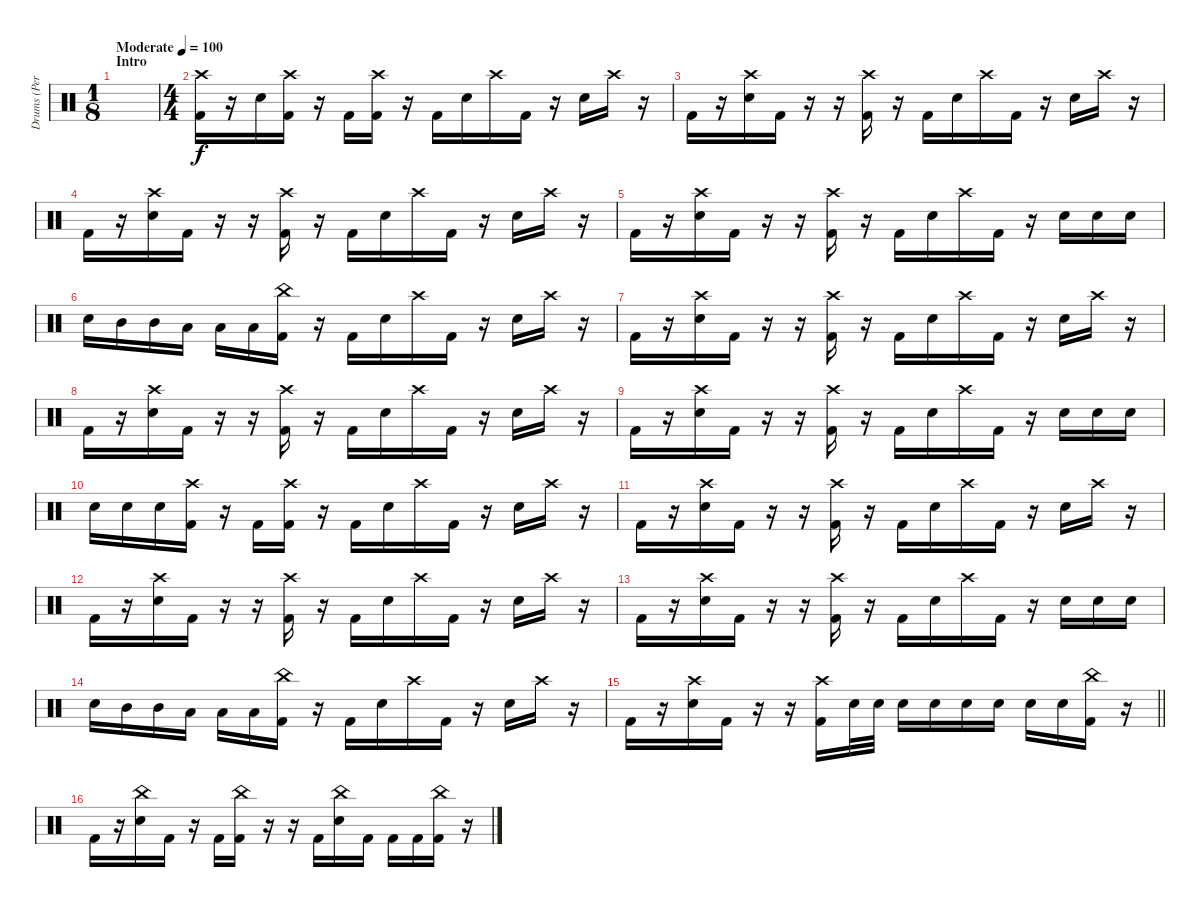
\track ("Drums (Perttu Kurttila)" "Drums (Per") {instrument percussion}
\staff {score}
\articulation defaults
\ts (1 8)
\section ("" "Intro")
\tempo (100 "Moderate")
\clef neutral
\ks c
|
\ts (4 4)
("Crash high (hit)" "Kick (hit) 2").16 r.16 "Electric Snare (hit)".16 ("Crash high (hit)" "Kick (hit) 2").16 r.16 "Kick (hit) 2".16 ("Crash high (hit)" "Kick (hit) 2").16 r.16 "Kick (hit) 2".16 "Electric Snare (hit)".16 "Crash high (hit)".16 "Kick (hit) 2".16 r.16 "Electric Snare (hit)".16 "Crash high (hit)".16 r.16 |
"Kick (hit) 2".16 r.16 ("Crash high (hit)" "Electric Snare (hit)").16 "Kick (hit) 2".16 r.16 r.16 ("Crash high (hit)" "Kick (hit) 2").16 r.16 "Kick (hit) 2".16 "Electric Snare (hit)".16 "Crash high (hit)".16 "Kick (hit) 2".16 r.16 "Electric Snare (hit)".16 "Crash high (hit)".16 r.16 |
"Kick (hit) 2".16 r.16 ("Crash high (hit)" "Electric Snare (hit)").16 "Kick (hit) 2".16 r.16 r.16 ("Crash high (hit)" "Kick (hit) 2").16 r.16 "Kick (hit) 2".16 "Electric Snare (hit)".16 "Crash high (hit)".16 "Kick (hit) 2".16 r.16 "Electric Snare (hit)".16 "Crash high (hit)".16 r.16 |
"Kick (hit) 2".16 r.16 ("Crash high (hit)" "Electric Snare (hit)").16 "Kick (hit) 2".16 r.16 r.16 ("Crash high (hit)" "Kick (hit) 2").16 r.16 "Kick (hit) 2".16 "Electric Snare (hit)".16 "Crash high (hit)".16 "Kick (hit) 2".16 r.16 "Electric Snare (hit)".16 "Electric Snare (hit)".16 "Electric Snare (hit)".16 |
"Electric Snare (hit)".16 "Mid Tom (hit)".16 "Mid Tom (hit)".16 "Low Tom (hit)".16 "Low Tom (hit)".16 "Low Tom (hit)".16 ("China (hit)" "Kick (hit) 2").16 r.16 "Kick (hit) 2".16 "Electric Snare (hit)".16 "Crash high (hit)".16 "Kick (hit) 2".16 r.16 "Electric Snare (hit)".16 "Crash high (hit)".16 r.16 |
"Kick (hit) 2".16 r.16 ("Crash high (hit)" "Electric Snare (hit)").16 "Kick (hit) 2".16 r.16 r.16 ("Crash high (hit)" "Kick (hit) 2").16 r.16 "Kick (hit) 2".16 "Electric Snare (hit)".16 "Crash high (hit)".16 "Kick (hit) 2".16 r.16 "Electric Snare (hit)".16 "Crash high (hit)".16 r.16 |
"Kick (hit) 2".16 r.16 ("Crash high (hit)" "Electric Snare (hit)").16 "Kick (hit) 2".16 r.16 r.16 ("Crash high (hit)" "Kick (hit) 2").16 r.16 "Kick (hit) 2".16 "Electric Snare (hit)".16 "Crash high (hit)".16 "Kick (hit) 2".16 r.16 "Electric Snare (hit)".16 "Crash high (hit)".16 r.16 |
"Kick (hit) 2".16 r.16 ("Crash high (hit)" "Electric Snare (hit)").16 "Kick (hit) 2".16 r.16 r.16 ("Crash high (hit)" "Kick (hit) 2").16 r.16 "Kick (hit) 2".16 "Electric Snare (hit)".16 "Crash high (hit)".16 "Kick (hit) 2".16 r.16 "Electric Snare (hit)".16 "Electric Snare (hit)".16 "Electric Snare (hit)".16 |
"Electric Snare (hit)".16 "Electric Snare (hit)".16 "Electric Snare (hit)".16 ("Crash high (hit)" "Kick (hit) 2").16 r.16 "Kick (hit) 2".16 ("Crash high (hit)" "Kick (hit) 2").16 r.16 "Kick (hit) 2".16 "Electric Snare (hit)".16 "Crash high (hit)".16 "Kick (hit) 2".16 r.16 "Electric Snare (hit)".16 "Crash high (hit)".16 r.16 |
"Kick (hit) 2".16 r.16 ("Crash high (hit)" "Electric Snare (hit)").16 "Kick (hit) 2".16 r.16 r.16 ("Crash high (hit)" "Kick (hit) 2").16 r.16 "Kick (hit) 2".16 "Electric Snare (hit)".16 "Crash high (hit)".16 "Kick (hit) 2".16 r.16 "Electric Snare (hit)".16 "Crash high (hit)".16 r.16 |
"Kick (hit) 2".16 r.16 ("Crash high (hit)" "Electric Snare (hit)").16 "Kick (hit) 2".16 r.16 r.16 ("Crash high (hit)" "Kick (hit) 2").16 r.16 "Kick (hit) 2".16 "Electric Snare (hit)".16 "Crash high (hit)".16 "Kick (hit) 2".16 r.16 "Electric Snare (hit)".16 "Crash high (hit)".16 r.16 |
"Kick (hit) 2".16 r.16 ("Crash high (hit)" "Electric Snare (hit)").16 "Kick (hit) 2".16 r.16 r.16 ("Crash high (hit)" "Kick (hit) 2").16 r.16 "Kick (hit) 2".16 "Electric Snare (hit)".16 "Crash high (hit)".16 "Kick (hit) 2".16 r.16 "Electric Snare (hit)".16 "Electric Snare (hit)".16 "Electric Snare (hit)".16 |
"Electric Snare (hit)".16 "Mid Tom (hit)".16 "Mid Tom (hit)".16 "Low Tom (hit)".16 "Low Tom (hit)".16 "Low Tom (hit)".16 ("China (hit)" "Kick (hit) 2").16 r.16 "Kick (hit) 2".16 "Electric Snare (hit)".16 "Crash high (hit)".16 "Kick (hit) 2".16 r.16 "Electric Snare (hit)".16 "Crash high (hit)".16 r.16 |
\barLineRight lightlight "Kick (hit) 2".16
r.16 ("Crash high (hit)" "Electric Snare (hit)").16 "Kick (hit) 2".16 r.16 r.16 ("Crash high (hit)" "Kick (hit) 2").16 "Electric Snare (hit)".32 "Electric Snare (hit)".32 "Electric Snare (hit)".16 "Electric Snare (hit)".16 "Electric Snare (hit)".16 "Electric Snare (hit)".16 "Electric Snare (hit)".16 "Electric Snare (hit)".16 ("China (hit)" "Kick (hit) 2").16 r.16 |
\section ("" "")
"Kick (hit) 2".16 r.16 ("China (hit)" "Electric Snare (hit)").16 "Kick (hit) 2".16 r.16 "Kick (hit) 2".16 ("China (hit)" "Kick (hit) 2").16 r.16 r.16 "Kick (hit) 2".16 ("China (hit)" "Electric Snare (hit)").16 "Kick (hit) 2".16 "Kick (hit) 2".16 "Kick (hit) 2".16 ("China (hit)" "Kick (hit) 2").16 r.16
